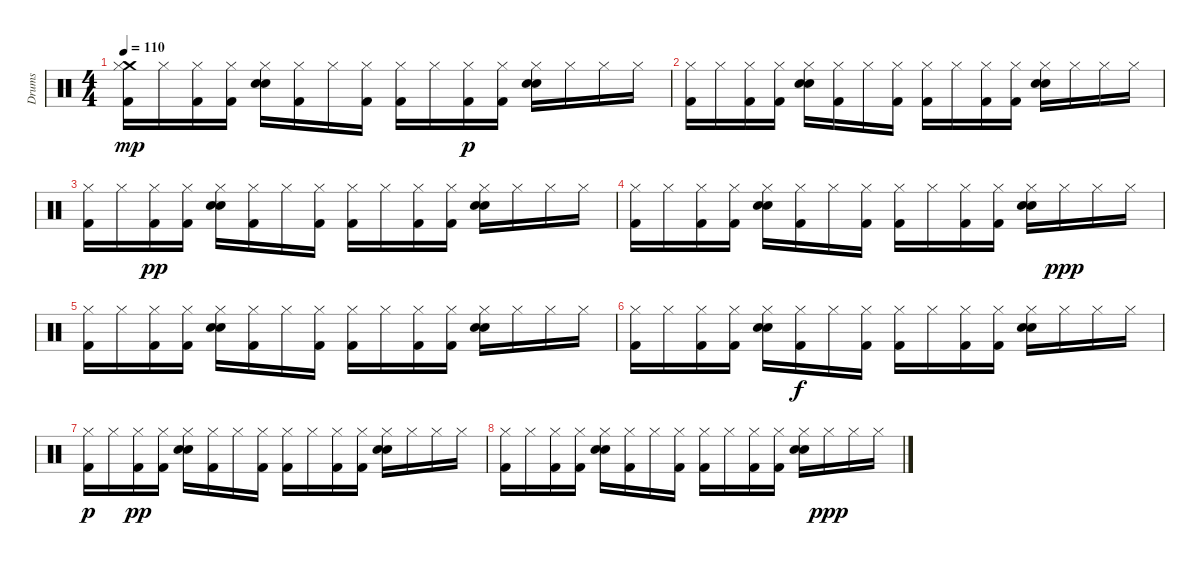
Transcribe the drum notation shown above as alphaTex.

\track ("Drums" "Drums") {instrument percussion}
\staff {score}
\articulation defaults
\ts (4 4)
\tempo 110
\clef neutral
\ks c
("Crash medium (hit)" "Kick (hit) 2" "Hi-Hat (closed)").16{dy mp} "Hi-Hat (closed)".16 ("Kick (hit) 2" "Hi-Hat (closed)").16 ("Kick (hit) 2" "Hi-Hat (closed)").16 ("Electric Snare (hit)" "Snare (hit) 2" "Hi-Hat (closed)").16 ("Kick (hit) 2" "Hi-Hat (closed)").16 "Hi-Hat (closed)".16 ("Kick (hit) 2" "Hi-Hat (closed)").16 ("Kick (hit) 2" "Hi-Hat (closed)").16 "Hi-Hat (closed)".16 ("Kick (hit) 2" "Hi-Hat (closed)").16{dy p} ("Kick (hit) 2" "Hi-Hat (closed)").16 ("Electric Snare (hit)" "Snare (hit) 2" "Hi-Hat (closed)").16 "Hi-Hat (closed)".16 "Hi-Hat (closed)".16 "Hi-Hat (closed)".16 |
("Kick (hit) 2" "Hi-Hat (closed)").16 "Hi-Hat (closed)".16 ("Kick (hit) 2" "Hi-Hat (closed)").16 ("Kick (hit) 2" "Hi-Hat (closed)").16 ("Electric Snare (hit)" "Snare (hit) 2" "Hi-Hat (closed)").16 ("Kick (hit) 2" "Hi-Hat (closed)").16 "Hi-Hat (closed)".16 ("Kick (hit) 2" "Hi-Hat (closed)").16 ("Kick (hit) 2" "Hi-Hat (closed)").16 "Hi-Hat (closed)".16 ("Kick (hit) 2" "Hi-Hat (closed)").16 ("Kick (hit) 2" "Hi-Hat (closed)").16 ("Electric Snare (hit)" "Snare (hit) 2" "Hi-Hat (closed)").16 "Hi-Hat (closed)".16 "Hi-Hat (closed)".16 "Hi-Hat (closed)".16 |
("Kick (hit) 2" "Hi-Hat (closed)").16{volume 10} "Hi-Hat (closed)".16 ("Kick (hit) 2" "Hi-Hat (closed)").16{dy pp} ("Kick (hit) 2" "Hi-Hat (closed)").16 ("Electric Snare (hit)" "Snare (hit) 2" "Hi-Hat (closed)").16 ("Kick (hit) 2" "Hi-Hat (closed)").16 "Hi-Hat (closed)".16 ("Kick (hit) 2" "Hi-Hat (closed)").16 ("Kick (hit) 2" "Hi-Hat (closed)").16 "Hi-Hat (closed)".16 ("Kick (hit) 2" "Hi-Hat (closed)").16 ("Kick (hit) 2" "Hi-Hat (closed)").16 ("Electric Snare (hit)" "Snare (hit) 2" "Hi-Hat (closed)").16 "Hi-Hat (closed)".16 "Hi-Hat (closed)".16 "Hi-Hat (closed)".16 |
("Hi-Hat (closed)" "Kick (hit) 2").16 "Hi-Hat (closed)".16 ("Hi-Hat (closed)" "Kick (hit) 2").16 ("Hi-Hat (closed)" "Kick (hit) 2").16 ("Hi-Hat (closed)" "Electric Snare (hit)" "Snare (hit) 2").16 ("Hi-Hat (closed)" "Kick (hit) 2").16 "Hi-Hat (closed)".16 ("Hi-Hat (closed)" "Kick (hit) 2").16 ("Hi-Hat (closed)" "Kick (hit) 2").16 "Hi-Hat (closed)".16 ("Hi-Hat (closed)" "Kick (hit) 2").16 ("Hi-Hat (closed)" "Kick (hit) 2").16 ("Hi-Hat (closed)" "Electric Snare (hit)" "Snare (hit) 2").16 "Hi-Hat (closed)".16{dy ppp} "Hi-Hat (closed)".16 "Hi-Hat (closed)".16 |
("Kick (hit) 2" "Hi-Hat (closed)").16{volume 6} "Hi-Hat (closed)".16 ("Kick (hit) 2" "Hi-Hat (closed)").16 ("Kick (hit) 2" "Hi-Hat (closed)").16 ("Electric Snare (hit)" "Snare (hit) 2" "Hi-Hat (closed)").16 ("Kick (hit) 2" "Hi-Hat (closed)").16 "Hi-Hat (closed)".16 ("Kick (hit) 2" "Hi-Hat (closed)").16 ("Kick (hit) 2" "Hi-Hat (closed)").16 "Hi-Hat (closed)".16 ("Kick (hit) 2" "Hi-Hat (closed)").16 ("Kick (hit) 2" "Hi-Hat (closed)").16 ("Electric Snare (hit)" "Snare (hit) 2" "Hi-Hat (closed)").16 "Hi-Hat (closed)".16 "Hi-Hat (closed)".16 "Hi-Hat (closed)".16 |
("Hi-Hat (closed)" "Kick (hit) 2").16 "Hi-Hat (closed)".16 ("Hi-Hat (closed)" "Kick (hit) 2").16 ("Hi-Hat (closed)" "Kick (hit) 2").16 ("Hi-Hat (closed)" "Electric Snare (hit)" "Snare (hit) 2").16 ("Hi-Hat (closed)" "Kick (hit) 2").16{dy f} "Hi-Hat (closed)".16 ("Hi-Hat (closed)" "Kick (hit) 2").16 ("Hi-Hat (closed)" "Kick (hit) 2").16 "Hi-Hat (closed)".16 ("Hi-Hat (closed)" "Kick (hit) 2").16 ("Hi-Hat (closed)" "Kick (hit) 2").16 ("Hi-Hat (closed)" "Electric Snare (hit)" "Snare (hit) 2").16 "Hi-Hat (closed)".16 "Hi-Hat (closed)".16 "Hi-Hat (closed)".16 |
("Kick (hit) 2" "Hi-Hat (closed)").16{dy p volume 0} "Hi-Hat (closed)".16 ("Kick (hit) 2" "Hi-Hat (closed)").16{dy pp} ("Kick (hit) 2" "Hi-Hat (closed)").16 ("Electric Snare (hit)" "Snare (hit) 2" "Hi-Hat (closed)").16 ("Kick (hit) 2" "Hi-Hat (closed)").16 "Hi-Hat (closed)".16 ("Kick (hit) 2" "Hi-Hat (closed)").16 ("Kick (hit) 2" "Hi-Hat (closed)").16 "Hi-Hat (closed)".16 ("Kick (hit) 2" "Hi-Hat (closed)").16 ("Kick (hit) 2" "Hi-Hat (closed)").16 ("Electric Snare (hit)" "Snare (hit) 2" "Hi-Hat (closed)").16 "Hi-Hat (closed)".16 "Hi-Hat (closed)".16 "Hi-Hat (closed)".16 |
("Hi-Hat (closed)" "Kick (hit) 2").16 "Hi-Hat (closed)".16 ("Hi-Hat (closed)" "Kick (hit) 2").16 ("Hi-Hat (closed)" "Kick (hit) 2").16 ("Hi-Hat (closed)" "Electric Snare (hit)" "Snare (hit) 2").16 ("Hi-Hat (closed)" "Kick (hit) 2").16 "Hi-Hat (closed)".16 ("Hi-Hat (closed)" "Kick (hit) 2").16 ("Hi-Hat (closed)" "Kick (hit) 2").16 "Hi-Hat (closed)".16 ("Hi-Hat (closed)" "Kick (hit) 2").16 ("Hi-Hat (closed)" "Kick (hit) 2").16 ("Hi-Hat (closed)" "Electric Snare (hit)" "Snare (hit) 2").16 "Hi-Hat (closed)".16{dy ppp} "Hi-Hat (closed)".16 "Hi-Hat (closed)".16
